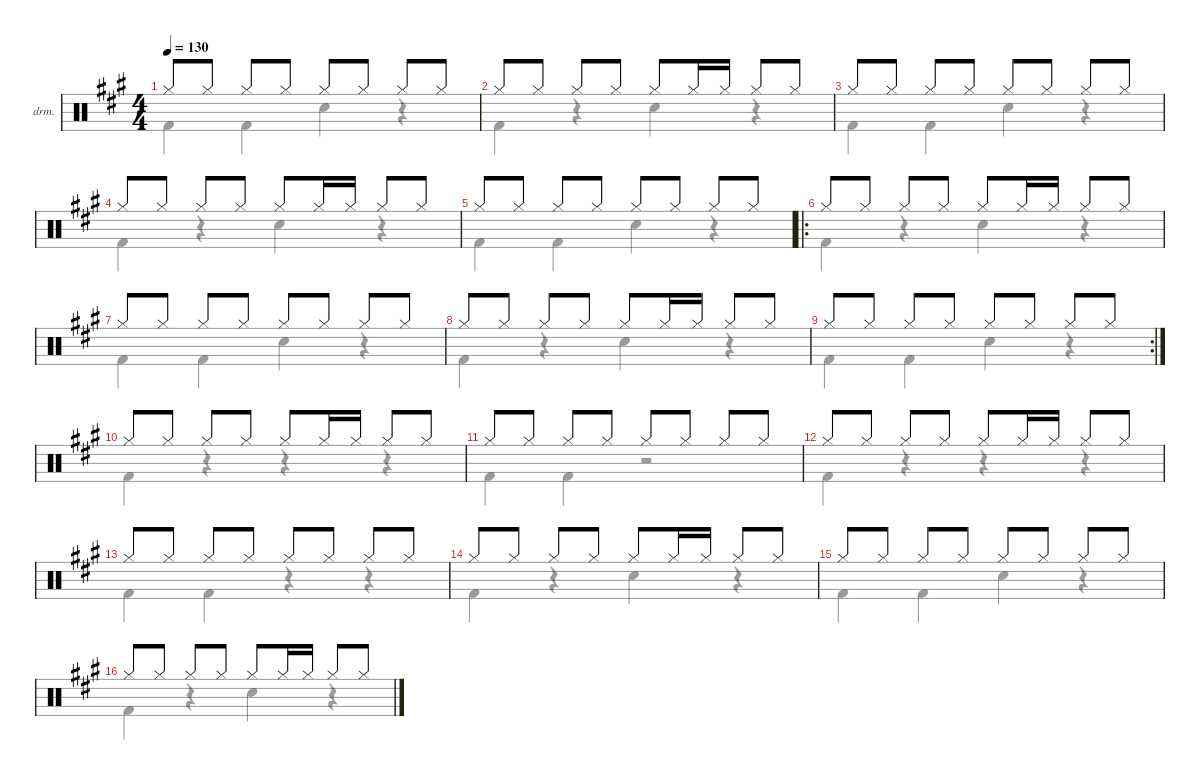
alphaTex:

\defaultSystemsLayout 4
\hideDynamics
\bracketExtendMode nobrackets
\firstSystemTrackNameOrientation horizontal
\otherSystemsTrackNameOrientation horizontal
\track ("  " "drm.") {instrument percussion}
\staff {score}
\articulation defaults
\voice
\ts (4 4)
\tempo 130
\clef neutral
\ks f#minor "Hi-Hat (closed)"{acc forcenatural}.8{dy mf beam Up} "Hi-Hat (closed)"{acc forcenatural}.8{beam Up} "Hi-Hat (closed)"{acc forcenatural}.8{beam Up} "Hi-Hat (closed)"{acc forcenatural}.8{beam Up} "Hi-Hat (closed)"{acc forcenatural}.8{beam Up} "Hi-Hat (closed)"{acc forcenatural}.8{beam Up} "Hi-Hat (closed)"{acc forcenatural}.8{beam Up} "Hi-Hat (closed)"{acc forcenatural}.8{beam Up}
|
"Hi-Hat (closed)"{acc forcenatural}.8{beam Up} "Hi-Hat (closed)"{acc forcenatural}.8{beam Up} "Hi-Hat (closed)"{acc forcenatural}.8{beam Up} "Hi-Hat (closed)"{acc forcenatural}.8{beam Up} "Hi-Hat (closed)"{acc forcenatural}.8{beam Up} "Hi-Hat (closed)"{acc forcenatural}.16{beam Up} "Hi-Hat (closed)"{acc forcenatural}.16{beam Up} "Hi-Hat (closed)"{acc forcenatural}.8{beam Up} "Hi-Hat (closed)"{acc forcenatural}.8{beam Up} |
"Hi-Hat (closed)"{acc forcenatural}.8{beam Up} "Hi-Hat (closed)"{acc forcenatural}.8{beam Up} "Hi-Hat (closed)"{acc forcenatural}.8{beam Up} "Hi-Hat (closed)"{acc forcenatural}.8{beam Up} "Hi-Hat (closed)"{acc forcenatural}.8{beam Up} "Hi-Hat (closed)"{acc forcenatural}.8{beam Up} "Hi-Hat (closed)"{acc forcenatural}.8{beam Up} "Hi-Hat (closed)"{acc forcenatural}.8{beam Up} |
"Hi-Hat (closed)"{acc forcenatural}.8{beam Up} "Hi-Hat (closed)"{acc forcenatural}.8{beam Up} "Hi-Hat (closed)"{acc forcenatural}.8{beam Up} "Hi-Hat (closed)"{acc forcenatural}.8{beam Up} "Hi-Hat (closed)"{acc forcenatural}.8{beam Up} "Hi-Hat (closed)"{acc forcenatural}.16{beam Up} "Hi-Hat (closed)"{acc forcenatural}.16{beam Up} "Hi-Hat (closed)"{acc forcenatural}.8{beam Up} "Hi-Hat (closed)"{acc forcenatural}.8{beam Up} |
"Hi-Hat (closed)"{acc forcenatural}.8{beam Up} "Hi-Hat (closed)"{acc forcenatural}.8{beam Up} "Hi-Hat (closed)"{acc forcenatural}.8{beam Up} "Hi-Hat (closed)"{acc forcenatural}.8{beam Up} "Hi-Hat (closed)"{acc forcenatural}.8{beam Up} "Hi-Hat (closed)"{acc forcenatural}.8{beam Up} "Hi-Hat (closed)"{acc forcenatural}.8{beam Up} "Hi-Hat (closed)"{acc forcenatural}.8{beam Up} |
\ro "Hi-Hat (closed)"{acc forcenatural}.8{beam Up} "Hi-Hat (closed)"{acc forcenatural}.8{beam Up} "Hi-Hat (closed)"{acc forcenatural}.8{beam Up} "Hi-Hat (closed)"{acc forcenatural}.8{beam Up} "Hi-Hat (closed)"{acc forcenatural}.8{beam Up} "Hi-Hat (closed)"{acc forcenatural}.16{beam Up} "Hi-Hat (closed)"{acc forcenatural}.16{beam Up} "Hi-Hat (closed)"{acc forcenatural}.8{beam Up} "Hi-Hat (closed)"{acc forcenatural}.8{beam Up}
|
"Hi-Hat (closed)"{acc forcenatural}.8{beam Up} "Hi-Hat (closed)"{acc forcenatural}.8{beam Up} "Hi-Hat (closed)"{acc forcenatural}.8{beam Up} "Hi-Hat (closed)"{acc forcenatural}.8{beam Up} "Hi-Hat (closed)"{acc forcenatural}.8{beam Up} "Hi-Hat (closed)"{acc forcenatural}.8{beam Up} "Hi-Hat (closed)"{acc forcenatural}.8{beam Up} "Hi-Hat (closed)"{acc forcenatural}.8{beam Up} |
"Hi-Hat (closed)"{acc forcenatural}.8{beam Up} "Hi-Hat (closed)"{acc forcenatural}.8{beam Up} "Hi-Hat (closed)"{acc forcenatural}.8{beam Up} "Hi-Hat (closed)"{acc forcenatural}.8{beam Up} "Hi-Hat (closed)"{acc forcenatural}.8{beam Up} "Hi-Hat (closed)"{acc forcenatural}.16{beam Up} "Hi-Hat (closed)"{acc forcenatural}.16{beam Up} "Hi-Hat (closed)"{acc forcenatural}.8{beam Up} "Hi-Hat (closed)"{acc forcenatural}.8{beam Up} |
\rc 2 "Hi-Hat (closed)"{acc forcenatural}.8{beam Up} "Hi-Hat (closed)"{acc forcenatural}.8{beam Up} "Hi-Hat (closed)"{acc forcenatural}.8{beam Up} "Hi-Hat (closed)"{acc forcenatural}.8{beam Up} "Hi-Hat (closed)"{acc forcenatural}.8{beam Up} "Hi-Hat (closed)"{acc forcenatural}.8{beam Up} "Hi-Hat (closed)"{acc forcenatural}.8{beam Up} "Hi-Hat (closed)"{acc forcenatural}.8{beam Up}
|
"Hi-Hat (closed)"{acc forcenatural}.8{beam Up} "Hi-Hat (closed)"{acc forcenatural}.8{beam Up} "Hi-Hat (closed)"{acc forcenatural}.8{beam Up} "Hi-Hat (closed)"{acc forcenatural}.8{beam Up} "Hi-Hat (closed)"{acc forcenatural}.8{beam Up} "Hi-Hat (closed)"{acc forcenatural}.16{beam Up} "Hi-Hat (closed)"{acc forcenatural}.16{beam Up} "Hi-Hat (closed)"{acc forcenatural}.8{beam Up} "Hi-Hat (closed)"{acc forcenatural}.8{beam Up} |
"Hi-Hat (closed)"{acc forcenatural}.8{beam Up} "Hi-Hat (closed)"{acc forcenatural}.8{beam Up} "Hi-Hat (closed)"{acc forcenatural}.8{beam Up} "Hi-Hat (closed)"{acc forcenatural}.8{beam Up} "Hi-Hat (closed)"{acc forcenatural}.8{beam Up} "Hi-Hat (closed)"{acc forcenatural}.8{beam Up} "Hi-Hat (closed)"{acc forcenatural}.8{beam Up} "Hi-Hat (closed)"{acc forcenatural}.8{beam Up} |
"Hi-Hat (closed)"{acc forcenatural}.8{beam Up} "Hi-Hat (closed)"{acc forcenatural}.8{beam Up} "Hi-Hat (closed)"{acc forcenatural}.8{beam Up} "Hi-Hat (closed)"{acc forcenatural}.8{beam Up} "Hi-Hat (closed)"{acc forcenatural}.8{beam Up} "Hi-Hat (closed)"{acc forcenatural}.16{beam Up} "Hi-Hat (closed)"{acc forcenatural}.16{beam Up} "Hi-Hat (closed)"{acc forcenatural}.8{beam Up} "Hi-Hat (closed)"{acc forcenatural}.8{beam Up} |
"Hi-Hat (closed)"{acc forcenatural}.8{beam Up} "Hi-Hat (closed)"{acc forcenatural}.8{beam Up} "Hi-Hat (closed)"{acc forcenatural}.8{beam Up} "Hi-Hat (closed)"{acc forcenatural}.8{beam Up} "Hi-Hat (closed)"{acc forcenatural}.8{beam Up} "Hi-Hat (closed)"{acc forcenatural}.8{beam Up} "Hi-Hat (closed)"{acc forcenatural}.8{beam Up} "Hi-Hat (closed)"{acc forcenatural}.8{beam Up} |
"Hi-Hat (closed)"{acc forcenatural}.8{beam Up} "Hi-Hat (closed)"{acc forcenatural}.8{beam Up} "Hi-Hat (closed)"{acc forcenatural}.8{beam Up} "Hi-Hat (closed)"{acc forcenatural}.8{beam Up} "Hi-Hat (closed)"{acc forcenatural}.8{beam Up} "Hi-Hat (closed)"{acc forcenatural}.16{beam Up} "Hi-Hat (closed)"{acc forcenatural}.16{beam Up} "Hi-Hat (closed)"{acc forcenatural}.8{beam Up} "Hi-Hat (closed)"{acc forcenatural}.8{beam Up} |
"Hi-Hat (closed)"{acc forcenatural}.8{beam Up} "Hi-Hat (closed)"{acc forcenatural}.8{beam Up} "Hi-Hat (closed)"{acc forcenatural}.8{beam Up} "Hi-Hat (closed)"{acc forcenatural}.8{beam Up} "Hi-Hat (closed)"{acc forcenatural}.8{beam Up} "Hi-Hat (closed)"{acc forcenatural}.8{beam Up} "Hi-Hat (closed)"{acc forcenatural}.8{beam Up} "Hi-Hat (closed)"{acc forcenatural}.8{beam Up} |
"Hi-Hat (closed)"{acc forcenatural}.8{beam Up} "Hi-Hat (closed)"{acc forcenatural}.8{beam Up} "Hi-Hat (closed)"{acc forcenatural}.8{beam Up} "Hi-Hat (closed)"{acc forcenatural}.8{beam Up} "Hi-Hat (closed)"{acc forcenatural}.8{beam Up} "Hi-Hat (closed)"{acc forcenatural}.16{beam Up} "Hi-Hat (closed)"{acc forcenatural}.16{beam Up} "Hi-Hat (closed)"{acc forcenatural}.8{beam Up} "Hi-Hat (closed)"{acc forcenatural}.8{beam Up}
\voice
\clef neutral
\ottava regular
\simile none
\ks f#minor "Kick (hit) 2"{acc forcenatural}.4{dy mf beam Down} "Kick (hit) 2"{acc forcenatural}.4{beam Down} "Snare (hit) 2"{acc forcenatural}.4{beam Down}
r.4{beam Down} |
"Kick (hit) 2"{acc forcenatural}.4{beam Down} r.4{beam Down} "Snare (hit) 2"{acc forcenatural}.4{beam Down} r.4{beam Down} |
"Kick (hit) 2"{acc forcenatural}.4{beam Down} "Kick (hit) 2"{acc forcenatural}.4{beam Down} "Snare (hit) 2"{acc forcenatural}.4{beam Down} r.4{beam Down} |
"Kick (hit) 2"{acc forcenatural}.4{beam Down} r.4{beam Down} "Snare (hit) 2"{acc forcenatural}.4{beam Down} r.4{beam Down} |
"Kick (hit) 2"{acc forcenatural}.4{beam Down} "Kick (hit) 2"{acc forcenatural}.4{beam Down} "Snare (hit) 2"{acc forcenatural}.4{beam Down} r.4{beam Down} |
"Kick (hit) 2"{acc forcenatural}.4{beam Down} r.4{beam Down} "Snare (hit) 2"{acc forcenatural}.4{beam Down} r.4{beam Down} |
"Kick (hit) 2"{acc forcenatural}.4{beam Down} "Kick (hit) 2"{acc forcenatural}.4{beam Down} "Snare (hit) 2"{acc forcenatural}.4{beam Down} r.4{beam Down} |
"Kick (hit) 2"{acc forcenatural}.4{beam Down} r.4{beam Down} "Snare (hit) 2"{acc forcenatural}.4{beam Down} r.4{beam Down} |
"Kick (hit) 2"{acc forcenatural}.4{beam Down} "Kick (hit) 2"{acc forcenatural}.4{beam Down} "Snare (hit) 2"{acc forcenatural}.4{beam Down} r.4{beam Down} |
"Kick (hit) 2"{acc forcenatural}.4{beam Down} r.4{beam Down} r.4{beam Down} r.4{beam Down} |
"Kick (hit) 2"{acc forcenatural}.4{beam Down} "Kick (hit) 2"{acc forcenatural}.4{beam Down} r.2{beam Down} |
"Kick (hit) 2"{acc forcenatural}.4{beam Down} r.4{beam Down} r.4{beam Down} r.4{beam Down} |
"Kick (hit) 2"{acc forcenatural}.4{beam Down} "Kick (hit) 2"{acc forcenatural}.4{beam Down} r.4{beam Down} r.4{beam Down} |
"Kick (hit) 2"{acc forcenatural}.4{beam Down} r.4{beam Down} "Snare (hit) 2"{acc forcenatural}.4{beam Down} r.4{beam Down} |
"Kick (hit) 2"{acc forcenatural}.4{beam Down} "Kick (hit) 2"{acc forcenatural}.4{beam Down} "Snare (hit) 2"{acc forcenatural}.4{beam Down} r.4{beam Down} |
"Kick (hit) 2"{acc forcenatural}.4{beam Down} r.4{beam Down} "Snare (hit) 2"{acc forcenatural}.4{beam Down} r.4{beam Down}
